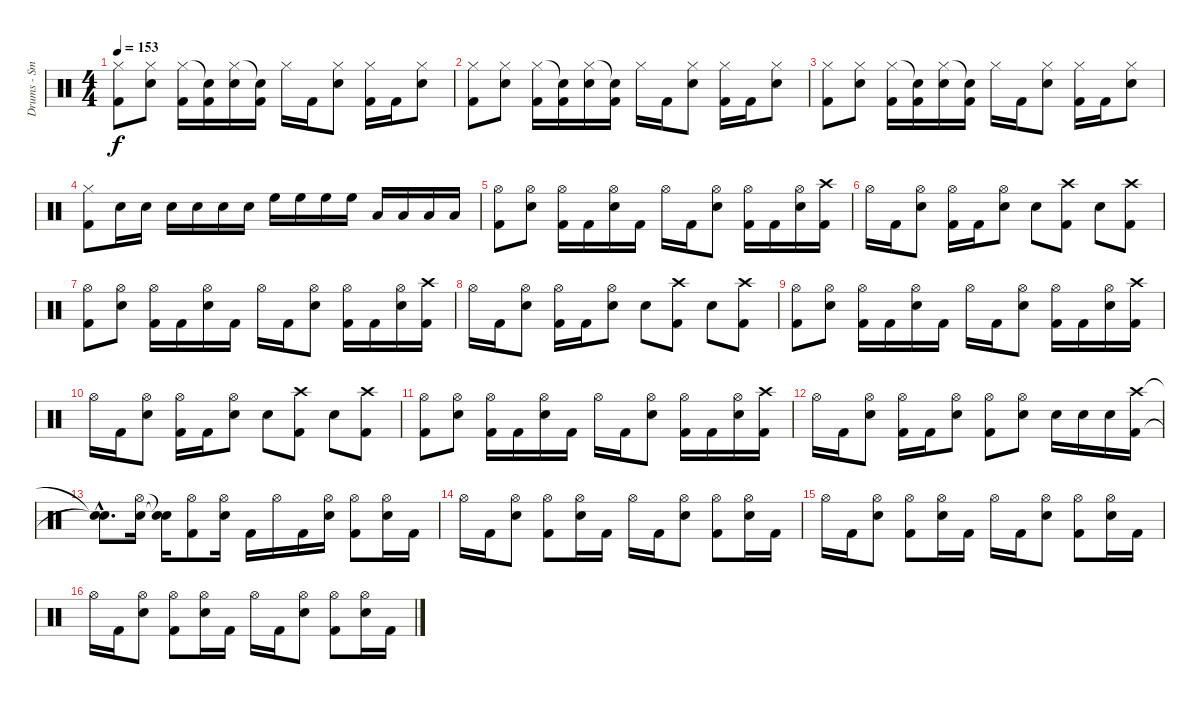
\track ("Drums - Smelly" "Drums - Sm") {instrument percussion}
\staff {score}
\articulation defaults
\ts (4 4)
\tempo 153
\clef neutral
\ks c
("Hi-Hat (closed)" "Kick (hit) 2").8{dy f} ("Hi-Hat (closed)" "Snare (hit) 2").8 ("Hi-Hat (closed)" "Kick (hit) 2").16 ("Snare (hit)"{t} "Kick (hit) 2").16 ("Hi-Hat (closed)" "Snare (hit) 2").16 ("Snare (hit)"{t} "Kick (hit) 2").16 "Hi-Hat (closed)".16 "Kick (hit) 2".16 ("Hi-Hat (closed)" "Snare (hit) 2").8 ("Hi-Hat (closed)" "Kick (hit) 2").16 "Kick (hit) 2".16 ("Hi-Hat (closed)" "Snare (hit) 2").8 |
("Hi-Hat (closed)" "Kick (hit) 2").8 ("Hi-Hat (closed)" "Snare (hit) 2").8 ("Hi-Hat (closed)" "Kick (hit) 2").16 ("Snare (hit)"{t} "Kick (hit) 2").16 ("Hi-Hat (closed)" "Snare (hit) 2").16 ("Snare (hit)"{t} "Kick (hit) 2").16 "Hi-Hat (closed)".16 "Kick (hit) 2".16 ("Hi-Hat (closed)" "Snare (hit) 2").8 ("Hi-Hat (closed)" "Kick (hit) 2").16 "Kick (hit) 2".16 ("Hi-Hat (closed)" "Snare (hit) 2").8 |
("Hi-Hat (closed)" "Kick (hit) 2").8 ("Hi-Hat (closed)" "Snare (hit) 2").8 ("Hi-Hat (closed)" "Kick (hit) 2").16 ("Snare (hit)"{t} "Kick (hit) 2").16 ("Hi-Hat (closed)" "Snare (hit) 2").16 ("Snare (hit)"{t} "Kick (hit) 2").16 "Hi-Hat (closed)".16 "Kick (hit) 2".16 ("Hi-Hat (closed)" "Snare (hit) 2").8 ("Hi-Hat (closed)" "Kick (hit) 2").16 "Kick (hit) 2".16 ("Hi-Hat (closed)" "Snare (hit) 2").8 |
("Hi-Hat (closed)" "Kick (hit) 2").8 "Snare (hit) 2".16 "Snare (hit) 2".16 "Snare (hit) 2".16 "Snare (hit) 2".16 "Snare (hit) 2".16 "Snare (hit) 2".16 "High Floor Tom (hit)".16 "High Floor Tom (hit)".16 "High Floor Tom (hit)".16 "High Floor Tom (hit)".16 "Low Floor Tom (hit)".16 "Low Floor Tom (hit)".16 "Low Floor Tom (hit)".16 "Low Floor Tom (hit)".16 |
("Hi-Hat (open)" "Kick (hit) 2").8 ("Hi-Hat (open)" "Snare (hit) 2").8 ("Hi-Hat (open)" "Kick (hit) 2").16 "Kick (hit) 2".16 ("Hi-Hat (open)" "Snare (hit) 2").16 "Kick (hit) 2".16 "Hi-Hat (open)".16 "Kick (hit) 2".16 ("Hi-Hat (open)" "Snare (hit) 2").8 ("Hi-Hat (open)" "Kick (hit) 2").16 "Kick (hit) 2".16 ("Hi-Hat (open)" "Snare (hit) 2").16 ("Crash high (hit)" "Kick (hit) 2").16 |
"Hi-Hat (open)".16 "Kick (hit) 2".16 ("Hi-Hat (open)" "Snare (hit) 2").8 ("Hi-Hat (open)" "Kick (hit) 2").16 "Kick (hit) 2".16 ("Hi-Hat (open)" "Snare (hit) 2").8 "Snare (hit) 2".8 ("Crash high (hit)" "Kick (hit) 2").8 "Snare (hit) 2".8 ("Crash high (hit)" "Kick (hit) 2").8 |
("Hi-Hat (open)" "Kick (hit) 2").8 ("Hi-Hat (open)" "Snare (hit) 2").8 ("Hi-Hat (open)" "Kick (hit) 2").16 "Kick (hit) 2".16 ("Hi-Hat (open)" "Snare (hit) 2").16 "Kick (hit) 2".16 "Hi-Hat (open)".16 "Kick (hit) 2".16 ("Hi-Hat (open)" "Snare (hit) 2").8 ("Hi-Hat (open)" "Kick (hit) 2").16 "Kick (hit) 2".16 ("Hi-Hat (open)" "Snare (hit) 2").16 ("Crash high (hit)" "Kick (hit) 2").16 |
"Hi-Hat (open)".16 "Kick (hit) 2".16 ("Hi-Hat (open)" "Snare (hit) 2").8 ("Hi-Hat (open)" "Kick (hit) 2").16 "Kick (hit) 2".16 ("Hi-Hat (open)" "Snare (hit) 2").8 "Snare (hit) 2".8 ("Crash high (hit)" "Kick (hit) 2").8 "Snare (hit) 2".8 ("Crash high (hit)" "Kick (hit) 2").8 |
("Hi-Hat (open)" "Kick (hit) 2").8 ("Hi-Hat (open)" "Snare (hit) 2").8 ("Hi-Hat (open)" "Kick (hit) 2").16 "Kick (hit) 2".16 ("Hi-Hat (open)" "Snare (hit) 2").16 "Kick (hit) 2".16 "Hi-Hat (open)".16 "Kick (hit) 2".16 ("Hi-Hat (open)" "Snare (hit) 2").8 ("Hi-Hat (open)" "Kick (hit) 2").16 "Kick (hit) 2".16 ("Hi-Hat (open)" "Snare (hit) 2").16 ("Crash high (hit)" "Kick (hit) 2").16 |
"Hi-Hat (open)".16 "Kick (hit) 2".16 ("Hi-Hat (open)" "Snare (hit) 2").8 ("Hi-Hat (open)" "Kick (hit) 2").16 "Kick (hit) 2".16 ("Hi-Hat (open)" "Snare (hit) 2").8 "Snare (hit) 2".8 ("Crash high (hit)" "Kick (hit) 2").8 "Snare (hit) 2".8 ("Crash high (hit)" "Kick (hit) 2").8 |
("Hi-Hat (open)" "Kick (hit) 2").8 ("Hi-Hat (open)" "Snare (hit) 2").8 ("Hi-Hat (open)" "Kick (hit) 2").16 "Kick (hit) 2".16 ("Hi-Hat (open)" "Snare (hit) 2").16 "Kick (hit) 2".16 "Hi-Hat (open)".16 "Kick (hit) 2".16 ("Hi-Hat (open)" "Snare (hit) 2").8 ("Hi-Hat (open)" "Kick (hit) 2").16 "Kick (hit) 2".16 ("Hi-Hat (open)" "Snare (hit) 2").16 ("Crash high (hit)" "Kick (hit) 2").16 |
"Hi-Hat (open)".16 "Kick (hit) 2".16 ("Hi-Hat (open)" "Snare (hit) 2").8 ("Hi-Hat (open)" "Kick (hit) 2").16 "Kick (hit) 2".16 ("Hi-Hat (open)" "Snare (hit) 2").8 ("Hi-Hat (open)" "Kick (hit) 2").8 ("Hi-Hat (open)" "Snare (hit) 2").8 "Snare (hit) 2".16 "Snare (hit) 2".16 "Snare (hit) 2".16 ("Crash high (hit)" "Kick (hit) 2").16 |
("Snare (hit)"{hac t} "Snare (hit)"{hac t}).8{d} ("Hi-Hat (open)" "Snare (hit) 2").16 ("Snare (hit)"{t} "Snare (hit)"{t}).16 ("Hi-Hat (open)" "Kick (hit) 2").8 ("Hi-Hat (open)" "Snare (hit) 2").16 "Kick (hit) 2".16 "Hi-Hat (open)".16 "Kick (hit) 2".16 ("Hi-Hat (open)" "Snare (hit) 2").16 ("Hi-Hat (open)" "Kick (hit) 2").8 ("Hi-Hat (open)" "Snare (hit) 2").16 "Kick (hit) 2".16 |
"Hi-Hat (open)".16 "Kick (hit) 2".16 ("Hi-Hat (open)" "Snare (hit) 2").8 ("Hi-Hat (open)" "Kick (hit) 2").8 ("Hi-Hat (open)" "Snare (hit) 2").16 "Kick (hit) 2".16 "Hi-Hat (open)".16 "Kick (hit) 2".16 ("Hi-Hat (open)" "Snare (hit) 2").8 ("Hi-Hat (open)" "Kick (hit) 2").8 ("Hi-Hat (open)" "Snare (hit) 2").16 "Kick (hit) 2".16 |
"Hi-Hat (open)".16 "Kick (hit) 2".16 ("Hi-Hat (open)" "Snare (hit) 2").8 ("Hi-Hat (open)" "Kick (hit) 2").8 ("Hi-Hat (open)" "Snare (hit) 2").16 "Kick (hit) 2".16 "Hi-Hat (open)".16 "Kick (hit) 2".16 ("Hi-Hat (open)" "Snare (hit) 2").8 ("Hi-Hat (open)" "Kick (hit) 2").8 ("Hi-Hat (open)" "Snare (hit) 2").16 "Kick (hit) 2".16 |
"Hi-Hat (open)".16 "Kick (hit) 2".16 ("Hi-Hat (open)" "Snare (hit) 2").8 ("Hi-Hat (open)" "Kick (hit) 2").8 ("Hi-Hat (open)" "Snare (hit) 2").16 "Kick (hit) 2".16 "Hi-Hat (open)".16 "Kick (hit) 2".16 ("Hi-Hat (open)" "Snare (hit) 2").8 ("Hi-Hat (open)" "Kick (hit) 2").8 ("Hi-Hat (open)" "Snare (hit) 2").16 "Kick (hit) 2".16
